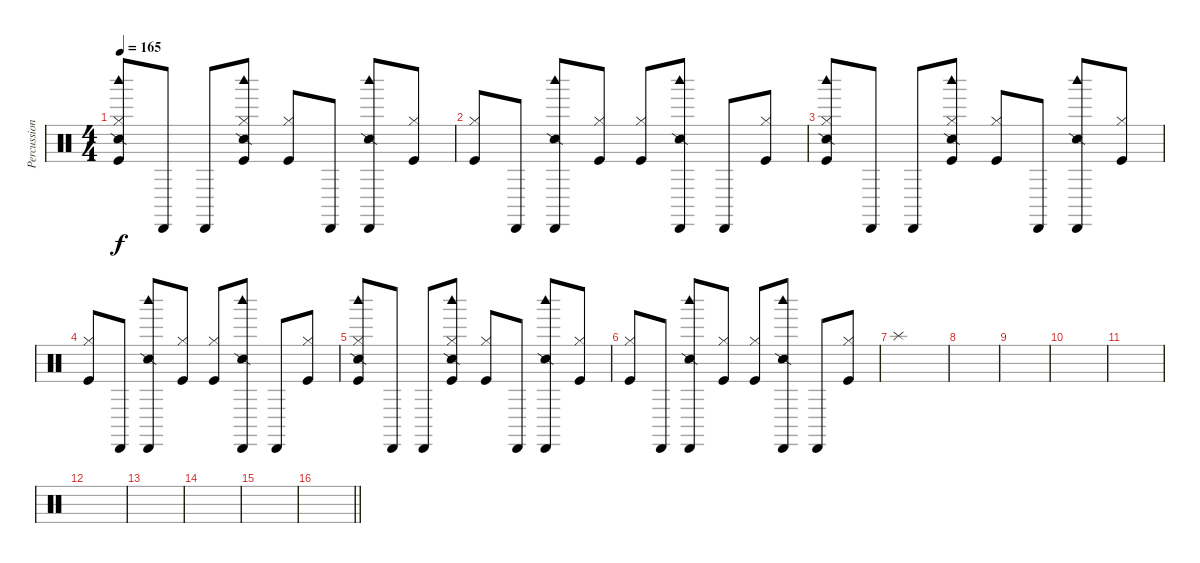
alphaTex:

\track ("Percussion" "Percussion") {instrument percussion}
\staff {score}
\articulation defaults
\ts (4 4)
\tempo 165
\clef neutral
\ks c
("Snare (side stick) 2" "Hi-Hat (closed)" "Woodblock high (hit)" "Kick (hit)").8{dy f} "Cabasa (hit)".8 "Cabasa (hit)".8 ("Snare (side stick) 2" "Hi-Hat (closed)" "Woodblock high (hit)" "Kick (hit)").8 ("Hi-Hat (closed)" "Kick (hit)").8 "Cabasa (hit)".8 ("Snare (side stick) 2" "Cabasa (hit)" "Woodblock high (hit)").8 ("Hi-Hat (closed)" "Kick (hit)").8 |
("Hi-Hat (closed)" "Kick (hit)").8 "Cabasa (hit)".8 ("Snare (side stick) 2" "Cabasa (hit)" "Woodblock high (hit)").8 ("Hi-Hat (closed)" "Kick (hit)").8 ("Hi-Hat (closed)" "Kick (hit)").8 ("Snare (side stick) 2" "Cabasa (hit)" "Woodblock high (hit)").8 "Cabasa (hit)".8 ("Hi-Hat (closed)" "Kick (hit)").8 |
("Snare (side stick) 2" "Hi-Hat (closed)" "Woodblock high (hit)" "Kick (hit)").8 "Cabasa (hit)".8 "Cabasa (hit)".8 ("Snare (side stick) 2" "Hi-Hat (closed)" "Woodblock high (hit)" "Kick (hit)").8 ("Hi-Hat (closed)" "Kick (hit)").8 "Cabasa (hit)".8 ("Snare (side stick) 2" "Cabasa (hit)" "Woodblock high (hit)").8 ("Hi-Hat (closed)" "Kick (hit)").8 |
("Hi-Hat (closed)" "Kick (hit)").8 "Cabasa (hit)".8 ("Snare (side stick) 2" "Cabasa (hit)" "Woodblock high (hit)").8 ("Hi-Hat (closed)" "Kick (hit)").8 ("Hi-Hat (closed)" "Kick (hit)").8 ("Snare (side stick) 2" "Cabasa (hit)" "Woodblock high (hit)").8 "Cabasa (hit)".8 ("Hi-Hat (closed)" "Kick (hit)").8 |
("Snare (side stick) 2" "Hi-Hat (closed)" "Woodblock high (hit)" "Kick (hit)").8 "Cabasa (hit)".8 "Cabasa (hit)".8 ("Snare (side stick) 2" "Hi-Hat (closed)" "Woodblock high (hit)" "Kick (hit)").8 ("Hi-Hat (closed)" "Kick (hit)").8 "Cabasa (hit)".8 ("Snare (side stick) 2" "Cabasa (hit)" "Woodblock high (hit)").8 ("Hi-Hat (closed)" "Kick (hit)").8 |
("Hi-Hat (closed)" "Kick (hit)").8 "Cabasa (hit)".8 ("Snare (side stick) 2" "Cabasa (hit)" "Woodblock high (hit)").8 ("Hi-Hat (closed)" "Kick (hit)").8 ("Hi-Hat (closed)" "Kick (hit)").8 ("Snare (side stick) 2" "Cabasa (hit)" "Woodblock high (hit)").8 "Cabasa (hit)".8 ("Hi-Hat (closed)" "Kick (hit)").8 |
"Splash (hit)".1 |
|
|
|
|
|
|
|
|
\barLineRight lightlight
